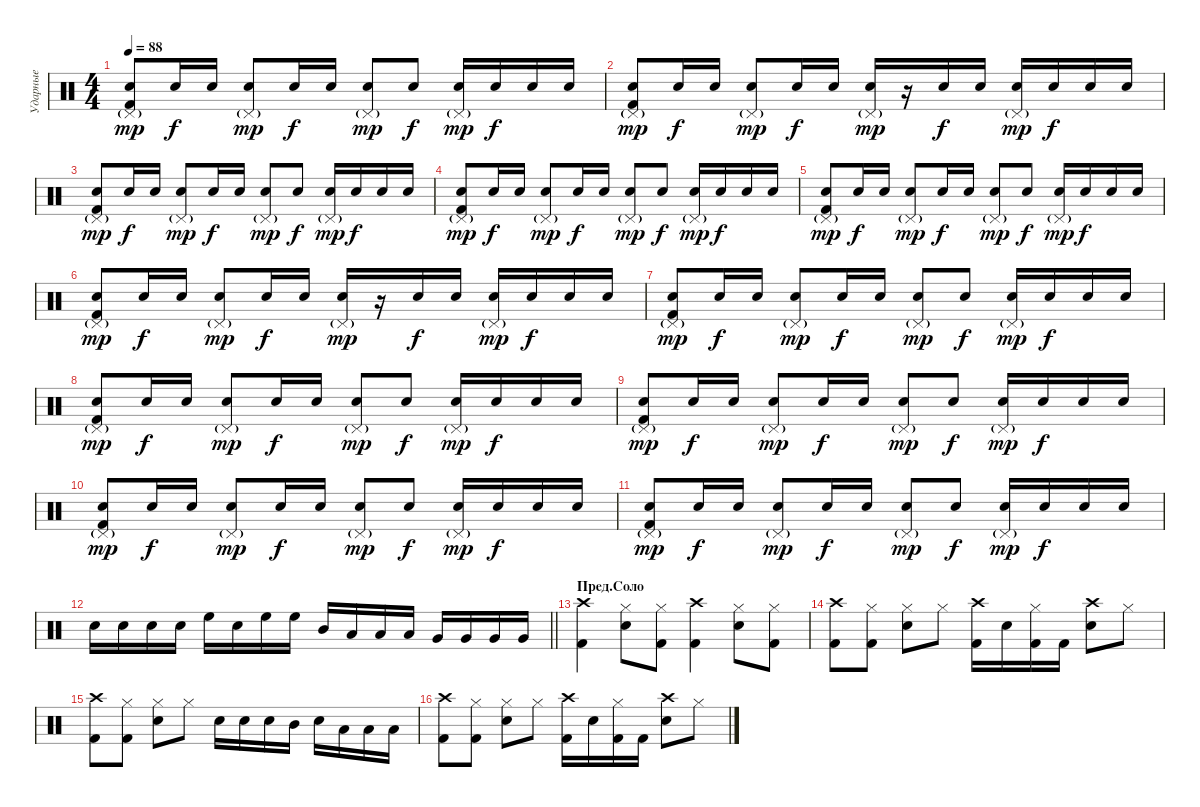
\track ("Ударные" "Ударные") {instrument percussion}
\staff {score}
\articulation defaults
\ts (4 4)
\tempo 88
\clef neutral
\ks c
("Snare (hit) 2" "Kick (hit) 2" "Pedal Hi-Hat (hit)"{g}).8{dy mp} "Snare (hit) 2".16{dy f} "Snare (hit) 2".16 ("Snare (hit) 2" "Pedal Hi-Hat (hit)"{g}).8{dy mp} "Snare (hit) 2".16{dy f} "Snare (hit) 2".16 ("Snare (hit) 2" "Pedal Hi-Hat (hit)"{g}).8{dy mp} "Snare (hit) 2".8{dy f} ("Snare (hit) 2" "Pedal Hi-Hat (hit)"{g}).16{dy mp} "Snare (hit) 2".16{dy f} "Snare (hit) 2".16 "Snare (hit) 2".16 |
("Snare (hit) 2" "Kick (hit) 2" "Pedal Hi-Hat (hit)"{g}).8{dy mp} "Snare (hit) 2".16{dy f} "Snare (hit) 2".16 ("Snare (hit) 2" "Pedal Hi-Hat (hit)"{g}).8{dy mp} "Snare (hit) 2".16{dy f} "Snare (hit) 2".16 ("Snare (hit) 2" "Pedal Hi-Hat (hit)"{g}).16{dy mp} r.16 "Snare (hit) 2".16{dy f} "Snare (hit) 2".16 ("Snare (hit) 2" "Pedal Hi-Hat (hit)"{g}).16{dy mp} "Snare (hit) 2".16{dy f} "Snare (hit) 2".16 "Snare (hit) 2".16 |
("Snare (hit) 2" "Kick (hit) 2" "Pedal Hi-Hat (hit)"{g}).8{dy mp} "Snare (hit) 2".16{dy f} "Snare (hit) 2".16 ("Snare (hit) 2" "Pedal Hi-Hat (hit)"{g}).8{dy mp} "Snare (hit) 2".16{dy f} "Snare (hit) 2".16 ("Snare (hit) 2" "Pedal Hi-Hat (hit)"{g}).8{dy mp} "Snare (hit) 2".8{dy f} ("Snare (hit) 2" "Pedal Hi-Hat (hit)"{g}).16{dy mp} "Snare (hit) 2".16{dy f} "Snare (hit) 2".16 "Snare (hit) 2".16 |
("Snare (hit) 2" "Kick (hit) 2" "Pedal Hi-Hat (hit)"{g}).8{dy mp} "Snare (hit) 2".16{dy f} "Snare (hit) 2".16 ("Snare (hit) 2" "Pedal Hi-Hat (hit)"{g}).8{dy mp} "Snare (hit) 2".16{dy f} "Snare (hit) 2".16 ("Snare (hit) 2" "Pedal Hi-Hat (hit)"{g}).8{dy mp} "Snare (hit) 2".8{dy f} ("Snare (hit) 2" "Pedal Hi-Hat (hit)"{g}).16{dy mp} "Snare (hit) 2".16{dy f} "Snare (hit) 2".16 "Snare (hit) 2".16 |
("Snare (hit) 2" "Kick (hit) 2" "Pedal Hi-Hat (hit)"{g}).8{dy mp} "Snare (hit) 2".16{dy f} "Snare (hit) 2".16 ("Snare (hit) 2" "Pedal Hi-Hat (hit)"{g}).8{dy mp} "Snare (hit) 2".16{dy f} "Snare (hit) 2".16 ("Snare (hit) 2" "Pedal Hi-Hat (hit)"{g}).8{dy mp} "Snare (hit) 2".8{dy f} ("Snare (hit) 2" "Pedal Hi-Hat (hit)"{g}).16{dy mp} "Snare (hit) 2".16{dy f} "Snare (hit) 2".16 "Snare (hit) 2".16 |
("Snare (hit) 2" "Kick (hit) 2" "Pedal Hi-Hat (hit)"{g}).8{dy mp} "Snare (hit) 2".16{dy f} "Snare (hit) 2".16 ("Snare (hit) 2" "Pedal Hi-Hat (hit)"{g}).8{dy mp} "Snare (hit) 2".16{dy f} "Snare (hit) 2".16 ("Snare (hit) 2" "Pedal Hi-Hat (hit)"{g}).16{dy mp} r.16 "Snare (hit) 2".16{dy f} "Snare (hit) 2".16 ("Snare (hit) 2" "Pedal Hi-Hat (hit)"{g}).16{dy mp} "Snare (hit) 2".16{dy f} "Snare (hit) 2".16 "Snare (hit) 2".16 |
("Snare (hit) 2" "Kick (hit) 2" "Pedal Hi-Hat (hit)"{g}).8{dy mp} "Snare (hit) 2".16{dy f} "Snare (hit) 2".16 ("Snare (hit) 2" "Pedal Hi-Hat (hit)"{g}).8{dy mp} "Snare (hit) 2".16{dy f} "Snare (hit) 2".16 ("Snare (hit) 2" "Pedal Hi-Hat (hit)"{g}).8{dy mp} "Snare (hit) 2".8{dy f} ("Snare (hit) 2" "Pedal Hi-Hat (hit)"{g}).16{dy mp} "Snare (hit) 2".16{dy f} "Snare (hit) 2".16 "Snare (hit) 2".16 |
("Snare (hit) 2" "Kick (hit) 2" "Pedal Hi-Hat (hit)"{g}).8{dy mp} "Snare (hit) 2".16{dy f} "Snare (hit) 2".16 ("Snare (hit) 2" "Pedal Hi-Hat (hit)"{g}).8{dy mp} "Snare (hit) 2".16{dy f} "Snare (hit) 2".16 ("Snare (hit) 2" "Pedal Hi-Hat (hit)"{g}).8{dy mp} "Snare (hit) 2".8{dy f} ("Snare (hit) 2" "Pedal Hi-Hat (hit)"{g}).16{dy mp} "Snare (hit) 2".16{dy f} "Snare (hit) 2".16 "Snare (hit) 2".16 |
("Snare (hit) 2" "Kick (hit) 2" "Pedal Hi-Hat (hit)"{g}).8{dy mp} "Snare (hit) 2".16{dy f} "Snare (hit) 2".16 ("Snare (hit) 2" "Pedal Hi-Hat (hit)"{g}).8{dy mp} "Snare (hit) 2".16{dy f} "Snare (hit) 2".16 ("Snare (hit) 2" "Pedal Hi-Hat (hit)"{g}).8{dy mp} "Snare (hit) 2".8{dy f} ("Snare (hit) 2" "Pedal Hi-Hat (hit)"{g}).16{dy mp} "Snare (hit) 2".16{dy f} "Snare (hit) 2".16 "Snare (hit) 2".16 |
("Snare (hit) 2" "Kick (hit) 2" "Pedal Hi-Hat (hit)"{g}).8{dy mp} "Snare (hit) 2".16{dy f} "Snare (hit) 2".16 ("Snare (hit) 2" "Pedal Hi-Hat (hit)"{g}).8{dy mp} "Snare (hit) 2".16{dy f} "Snare (hit) 2".16 ("Snare (hit) 2" "Pedal Hi-Hat (hit)"{g}).8{dy mp} "Snare (hit) 2".8{dy f} ("Snare (hit) 2" "Pedal Hi-Hat (hit)"{g}).16{dy mp} "Snare (hit) 2".16{dy f} "Snare (hit) 2".16 "Snare (hit) 2".16 |
("Snare (hit) 2" "Kick (hit) 2" "Pedal Hi-Hat (hit)"{g}).8{dy mp} "Snare (hit) 2".16{dy f} "Snare (hit) 2".16 ("Snare (hit) 2" "Pedal Hi-Hat (hit)"{g}).8{dy mp} "Snare (hit) 2".16{dy f} "Snare (hit) 2".16 ("Snare (hit) 2" "Pedal Hi-Hat (hit)"{g}).8{dy mp} "Snare (hit) 2".8{dy f} ("Snare (hit) 2" "Pedal Hi-Hat (hit)"{g}).16{dy mp} "Snare (hit) 2".16{dy f} "Snare (hit) 2".16 "Snare (hit) 2".16 |
\barLineRight lightlight "Snare (hit) 2".16 "Snare (hit) 2".16 "Snare (hit) 2".16 "Snare (hit) 2".16 "High Floor Tom (hit)".16 "Snare (hit) 2".16 "High Floor Tom (hit)".16 "High Floor Tom (hit)".16 "Mid Tom (hit)".16 "Low Tom (hit)".16 "Low Floor Tom (hit)".16 "Low Floor Tom (hit)".16 "Very Low Tom (hit)".16 "Very Low Tom (hit)".16 "Very Low Tom (hit)".16 "Very Low Tom (hit)".16
|
\section ("" "Пред.Соло")
("Crash high (hit)" "Kick (hit) 2").4 ("Hi-Hat (closed)" "Snare (hit) 2").8 ("Hi-Hat (closed)" "Kick (hit) 2").8 ("Crash high (hit)" "Kick (hit) 2").4 ("Hi-Hat (closed)" "Snare (hit) 2").8 ("Hi-Hat (closed)" "Kick (hit) 2").8 |
("Crash high (hit)" "Kick (hit) 2").8 ("Hi-Hat (closed)" "Kick (hit) 2").8 ("Hi-Hat (closed)" "Snare (hit) 2").8 "Hi-Hat (closed)".8 ("Crash high (hit)" "Kick (hit) 2").16 "Snare (hit) 2".16 ("Hi-Hat (closed)" "Kick (hit) 2").16 "Kick (hit) 2".16 ("Crash high (hit)" "Snare (hit) 2").8 "Hi-Hat (closed)".8 |
("Crash high (hit)" "Kick (hit) 2").8 ("Hi-Hat (closed)" "Kick (hit) 2").8 ("Hi-Hat (closed)" "Snare (hit) 2").8 "Hi-Hat (closed)".8 "Snare (hit) 2".16 "Snare (hit) 2".16 "Snare (hit) 2".16 "Mid Tom (hit)".16 "Snare (hit) 2".16 "Low Tom (hit)".16 "Low Tom (hit)".16 "Low Tom (hit)".16 |
("Crash high (hit)" "Kick (hit) 2").8 ("Hi-Hat (closed)" "Kick (hit) 2").8 ("Hi-Hat (closed)" "Snare (hit) 2").8 "Hi-Hat (closed)".8 ("Crash high (hit)" "Kick (hit) 2").16 "Snare (hit) 2".16 ("Hi-Hat (closed)" "Kick (hit) 2").16 "Kick (hit) 2".16 ("Crash high (hit)" "Snare (hit) 2").8 "Hi-Hat (closed)".8
